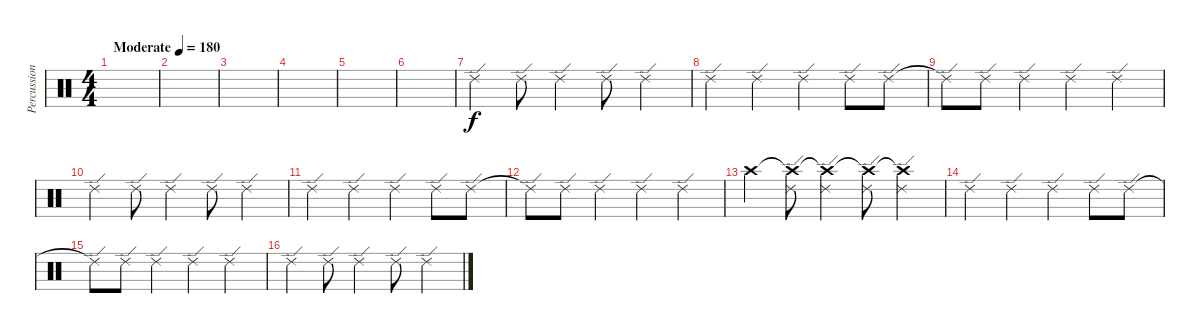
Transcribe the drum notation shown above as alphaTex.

\track ("Percussion" "Percussion") {instrument percussion}
\staff {score}
\articulation defaults
\ts (4 4)
\tempo (180 "Moderate")
\clef neutral
\ks c
|
|
|
|
|
|
"Ride (edge) 2".4 "Ride (edge) 2".8 "Ride (edge) 2".4 "Ride (edge) 2".8 "Ride (edge) 2".4 |
"Ride (edge) 2".4 "Ride (edge) 2".4 "Ride (edge) 2".4 "Ride (edge) 2".8 "Ride (edge) 2".8 |
"Ride (edge) 2"{t}.8 "Ride (edge) 2".8 "Ride (edge) 2".4 "Ride (edge) 2".4 "Ride (edge) 2".4 |
"Ride (edge) 2".4 "Ride (edge) 2".8 "Ride (edge) 2".4 "Ride (edge) 2".8 "Ride (edge) 2".4 |
"Ride (edge) 2".4 "Ride (edge) 2".4 "Ride (edge) 2".4 "Ride (edge) 2".8 "Ride (edge) 2".8 |
"Ride (edge) 2"{t}.8 "Ride (edge) 2".8 "Ride (edge) 2".4 "Ride (edge) 2".4 "Ride (edge) 2".4 |
"Crash high (hit)".4 ("Crash high (hit)"{t} "Ride (edge) 2").8 ("Crash high (hit)"{t} "Ride (edge) 2").4 ("Crash high (hit)"{t} "Ride (edge) 2").8 ("Crash high (hit)"{t} "Ride (edge) 2").4 |
"Ride (edge) 2".4 "Ride (edge) 2".4 "Ride (edge) 2".4 "Ride (edge) 2".8 "Ride (edge) 2".8 |
"Ride (edge) 2"{t}.8 "Ride (edge) 2".8 "Ride (edge) 2".4 "Ride (edge) 2".4 "Ride (edge) 2".4 |
"Ride (edge) 2".4 "Ride (edge) 2".8 "Ride (edge) 2".4 "Ride (edge) 2".8 "Ride (edge) 2".4
